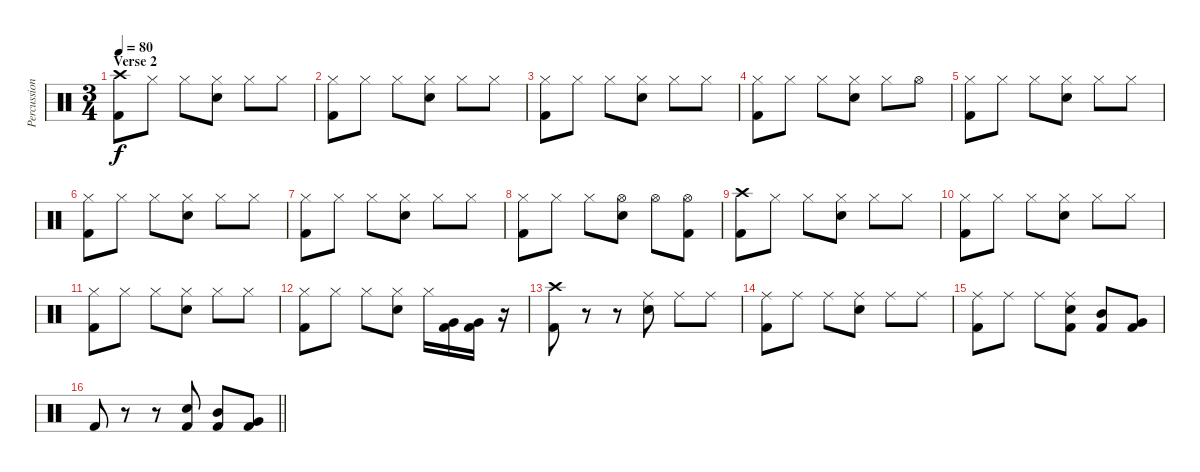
\track ("Percussion" "Percussion") {instrument percussion}
\staff {score}
\articulation defaults
\ts (3 4)
\section ("" "Verse 2")
\tempo 80
\clef neutral
\ks c
("Crash high (hit)" "Kick (hit) 2").8{dy f} "Hi-Hat (closed)".8 "Hi-Hat (closed)".8 ("Hi-Hat (closed)" "Snare (hit) 2").8 "Hi-Hat (closed)".8 "Hi-Hat (closed)".8 |
("Hi-Hat (closed)" "Kick (hit) 2").8 "Hi-Hat (closed)".8 "Hi-Hat (closed)".8 ("Hi-Hat (closed)" "Snare (hit) 2").8 "Hi-Hat (closed)".8 "Hi-Hat (closed)".8 |
("Hi-Hat (closed)" "Kick (hit) 2").8 "Hi-Hat (closed)".8 "Hi-Hat (closed)".8 ("Hi-Hat (closed)" "Snare (hit) 2").8 "Hi-Hat (closed)".8 "Hi-Hat (closed)".8 |
("Hi-Hat (closed)" "Kick (hit) 2").8 "Hi-Hat (closed)".8 "Hi-Hat (closed)".8 ("Hi-Hat (closed)" "Snare (hit) 2").8 "Hi-Hat (closed)".8 "Hi-Hat (open)".8 |
("Hi-Hat (closed)" "Kick (hit) 2").8 "Hi-Hat (closed)".8 "Hi-Hat (closed)".8 ("Hi-Hat (closed)" "Snare (hit) 2").8 "Hi-Hat (closed)".8 "Hi-Hat (closed)".8 |
("Hi-Hat (closed)" "Kick (hit) 2").8 "Hi-Hat (closed)".8 "Hi-Hat (closed)".8 ("Hi-Hat (closed)" "Snare (hit) 2").8 "Hi-Hat (closed)".8 "Hi-Hat (closed)".8 |
("Hi-Hat (closed)" "Kick (hit) 2").8 "Hi-Hat (closed)".8 "Hi-Hat (closed)".8 ("Hi-Hat (closed)" "Snare (hit) 2").8 "Hi-Hat (closed)".8 "Hi-Hat (closed)".8 |
("Hi-Hat (closed)" "Kick (hit) 2").8 "Hi-Hat (closed)".8 "Hi-Hat (closed)".8 ("Hi-Hat (open)" "Snare (hit) 2").8 "Hi-Hat (open)".8 ("Hi-Hat (open)" "Kick (hit) 2").8 |
("Crash high (hit)" "Kick (hit) 2").8 "Hi-Hat (closed)".8 "Hi-Hat (closed)".8 ("Hi-Hat (closed)" "Snare (hit) 2").8 "Hi-Hat (closed)".8 "Hi-Hat (closed)".8 |
("Hi-Hat (closed)" "Kick (hit) 2").8 "Hi-Hat (closed)".8 "Hi-Hat (closed)".8 ("Hi-Hat (closed)" "Snare (hit) 2").8 "Hi-Hat (closed)".8 "Hi-Hat (closed)".8 |
("Hi-Hat (closed)" "Kick (hit) 2").8 "Hi-Hat (closed)".8 "Hi-Hat (closed)".8 ("Hi-Hat (closed)" "Snare (hit) 2").8 "Hi-Hat (closed)".8 "Hi-Hat (closed)".8 |
("Hi-Hat (closed)" "Kick (hit) 2").8 "Hi-Hat (closed)".8 "Hi-Hat (closed)".8 ("Hi-Hat (closed)" "Snare (hit) 2").8 "Hi-Hat (closed)".16 ("Very Low Tom (hit)" "Kick (hit) 2").16 ("Very Low Tom (hit)" "Kick (hit) 2").16 r.16 |
("Crash high (hit)" "Kick (hit) 2").8 r.8 r.8 ("Ride (middle)" "Snare (hit) 2").8 "Ride (middle)".8 "Ride (middle)".8 |
("Ride (middle)" "Kick (hit) 2").8 "Ride (middle)".8 "Ride (middle)".8 ("Ride (middle)" "Snare (hit) 2").8 "Ride (middle)".8 "Ride (middle)".8 |
("Ride (middle)" "Kick (hit) 2").8 "Ride (middle)".8 "Ride (middle)".8 ("Ride (middle)" "Snare (hit) 2" "Kick (hit) 2").8 ("Mid Tom (hit)" "Kick (hit) 2").8 ("Very Low Tom (hit)" "Kick (hit) 2").8 |
\barLineRight lightlight "Kick (hit) 2".8
r.8 r.8 ("Snare (hit) 2" "Kick (hit) 2").8 ("Mid Tom (hit)" "Kick (hit) 2").8 ("Very Low Tom (hit)" "Kick (hit) 2").8
